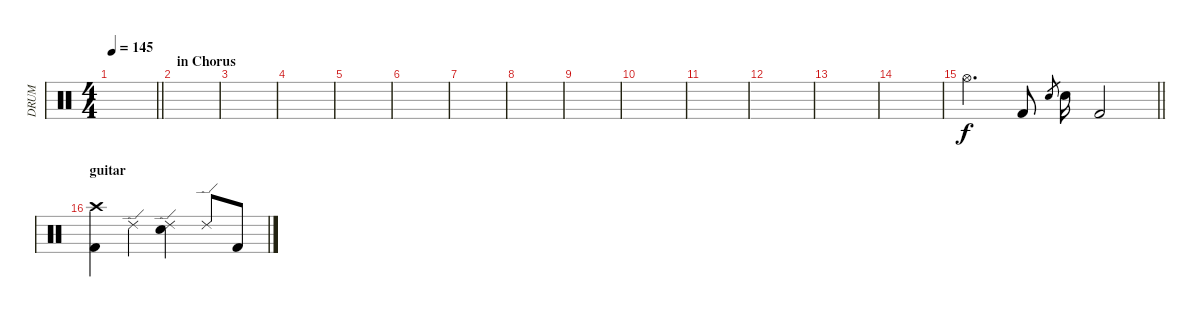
\track ("DRUM" "DRUM") {instrument percussion}
\staff {score}
\articulation defaults
\ts (4 4)
\tempo 145
\clef neutral
\barLineRight lightlight
\ks c
|
\section ("" "in Chorus")
|
|
|
|
|
|
|
|
|
|
|
|
|
\barLineRight lightlight "Hi-Hat (open)".4{d} "Kick (hit) 2".8 "Electric Snare (hit)".8{gr} "Electric Snare (hit)".16 "Kick (hit) 2".2
|
\section ("" "guitar")
("Crash high (hit)" "Kick (hit) 2").4 "Ride (edge) 2".4 ("Ride (edge) 2" "Electric Snare (hit)").4 "Ride (edge) 2".8 "Kick (hit) 2".8
